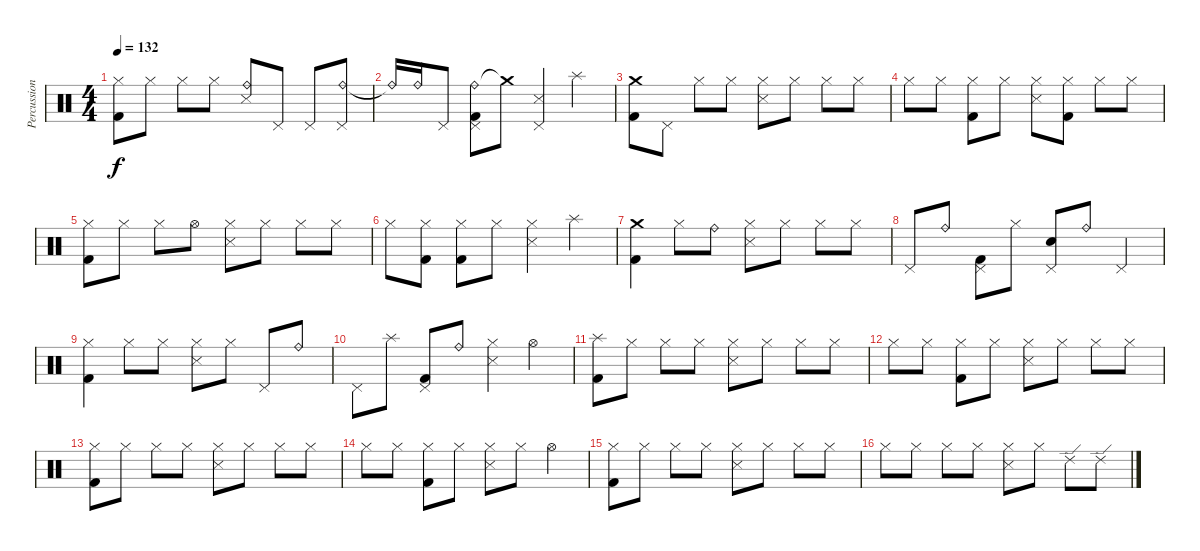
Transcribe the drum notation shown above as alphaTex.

\track ("Percussion" "Percussion") {instrument percussion}
\staff {score}
\articulation defaults
\ts (4 4)
\tempo 132
\clef neutral
\ks c
("Hi-Hat (closed)" "Kick (hit) 2").8{dy f} "Hi-Hat (closed)".8 "Hi-Hat (closed)".8 "Hi-Hat (closed)".8 ("Ride (bell)" "Snare (side stick) 3").8 "Pedal Hi-Hat (hit)".8 "Pedal Hi-Hat (hit)".8 ("Ride (bell)" "Pedal Hi-Hat (hit)").8 |
"Ride (bell)"{t}.16 "Ride (bell)".16 "Pedal Hi-Hat (hit)".8 ("Ride (bell)" "Pedal Hi-Hat (hit)" "Kick (hit) 2").8 "Crash medium (hit)"{t}.8 ("Pedal Hi-Hat (hit)" "Snare (side stick) 3").4 "Splash (hit)".4 |
("Crash medium (hit)" "Kick (hit) 2").8 "Pedal Hi-Hat (hit)".8 "Hi-Hat (closed)".8 "Hi-Hat (closed)".8 ("Hi-Hat (closed)" "Snare (side stick) 3").8 "Hi-Hat (closed)".8 "Hi-Hat (closed)".8 "Hi-Hat (closed)".8 |
"Hi-Hat (closed)".8 "Hi-Hat (closed)".8 ("Hi-Hat (closed)" "Kick (hit) 2").8 "Hi-Hat (closed)".8 ("Hi-Hat (closed)" "Snare (side stick) 3").8 ("Hi-Hat (closed)" "Kick (hit) 2").8 "Hi-Hat (closed)".8 "Hi-Hat (closed)".8 |
("Hi-Hat (closed)" "Kick (hit) 2").8 "Hi-Hat (closed)".8 "Hi-Hat (closed)".8 "Hi-Hat (open)".8 ("Hi-Hat (closed)" "Snare (side stick) 3").8 "Hi-Hat (closed)".8 "Hi-Hat (closed)".8 "Hi-Hat (closed)".8 |
"Hi-Hat (closed)".8 ("Hi-Hat (closed)" "Kick (hit) 2").8 ("Hi-Hat (closed)" "Kick (hit) 2").8 "Hi-Hat (closed)".8 ("Hi-Hat (closed)" "Snare (side stick) 3").4 "Splash (hit)".4 |
("Crash medium (hit)" "Kick (hit) 2").4 "Hi-Hat (closed)".8 "Ride (bell)".8 ("Hi-Hat (closed)" "Snare (side stick) 3").8 "Hi-Hat (closed)".8 "Hi-Hat (closed)".8 "Hi-Hat (closed)".8 |
"Pedal Hi-Hat (hit)".8 "Ride (bell)".8 ("Pedal Hi-Hat (hit)" "Kick (hit) 2").8 "Hi-Hat (closed)".8 ("Pedal Hi-Hat (hit)" "Snare (hit) 2").8 "Ride (bell)".8 "Pedal Hi-Hat (hit)".4 |
("Hi-Hat (closed)" "Kick (hit) 2").4 "Hi-Hat (closed)".8 "Hi-Hat (closed)".8 ("Hi-Hat (closed)" "Snare (side stick) 3").8 "Hi-Hat (closed)".8 "Pedal Hi-Hat (hit)".8 "Ride (bell)".8 |
"Pedal Hi-Hat (hit)".8 "Splash (hit)".8 ("Pedal Hi-Hat (hit)" "Kick (hit) 2").8 "Ride (bell)".8 ("Hi-Hat (closed)" "Snare (side stick) 3").4 "Hi-Hat (open)".4 |
("Splash (hit)" "Kick (hit) 2").8 "Hi-Hat (closed)".8 "Hi-Hat (closed)".8 "Hi-Hat (closed)".8 ("Hi-Hat (closed)" "Snare (side stick) 3").8 "Hi-Hat (closed)".8 "Hi-Hat (closed)".8 "Hi-Hat (closed)".8 |
"Hi-Hat (closed)".8 "Hi-Hat (closed)".8 ("Hi-Hat (closed)" "Kick (hit) 2").8 "Hi-Hat (closed)".8 ("Hi-Hat (closed)" "Snare (side stick) 3").8 "Hi-Hat (closed)".8 "Hi-Hat (closed)".8 "Hi-Hat (closed)".8 |
("Hi-Hat (closed)" "Kick (hit) 2").8 "Hi-Hat (closed)".8 "Hi-Hat (closed)".8 "Hi-Hat (closed)".8 ("Hi-Hat (closed)" "Snare (side stick) 3").8 "Hi-Hat (closed)".8 "Hi-Hat (closed)".8 "Hi-Hat (closed)".8 |
"Hi-Hat (closed)".8 "Hi-Hat (closed)".8 ("Hi-Hat (closed)" "Kick (hit) 2").8 "Hi-Hat (closed)".8 ("Hi-Hat (closed)" "Snare (side stick) 3").8 "Hi-Hat (closed)".8 "Hi-Hat (open)".4 |
("Hi-Hat (closed)" "Kick (hit) 2").8 "Hi-Hat (closed)".8 "Hi-Hat (closed)".8 "Hi-Hat (closed)".8 ("Hi-Hat (closed)" "Snare (side stick) 3").8 "Hi-Hat (closed)".8 "Hi-Hat (closed)".8 "Hi-Hat (closed)".8 |
"Hi-Hat (closed)".8 "Hi-Hat (closed)".8 "Hi-Hat (closed)".8 "Hi-Hat (closed)".8 ("Hi-Hat (closed)" "Snare (side stick) 3").8 "Hi-Hat (closed)".8 "Ride (edge) 2".8 "Ride (edge) 2".8
